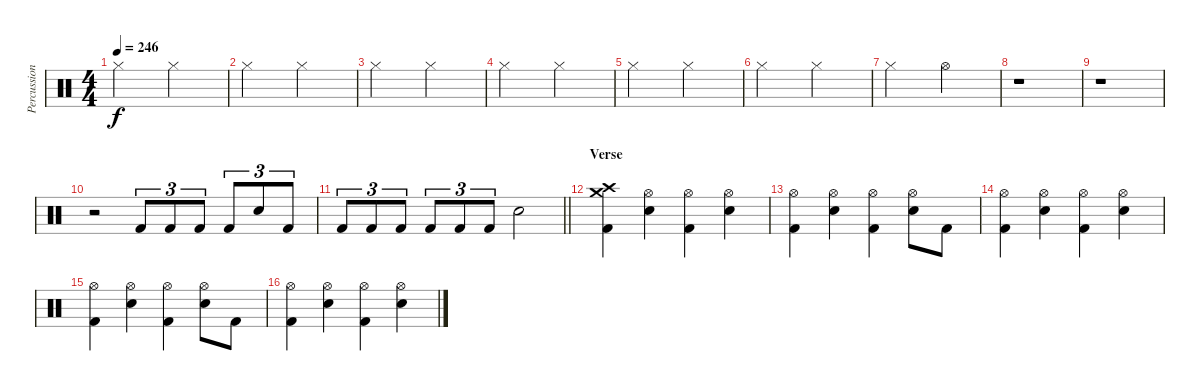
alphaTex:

\track ("Percussions" "Percussion") {instrument percussion}
\staff {score}
\articulation defaults
\ts (4 4)
\tempo 246
\clef neutral
\ks c "Hi-Hat (closed)".2{dy f} "Hi-Hat (closed)".2
|
"Hi-Hat (closed)".2 "Hi-Hat (closed)".2 |
"Hi-Hat (closed)".2 "Hi-Hat (closed)".2 |
"Hi-Hat (closed)".2 "Hi-Hat (closed)".2 |
"Hi-Hat (closed)".2 "Hi-Hat (closed)".2 |
"Hi-Hat (closed)".2 "Hi-Hat (closed)".2 |
"Hi-Hat (closed)".2 "Hi-Hat (open)".2 |
r.1 |
r.1 |
r.2 "Kick (hit) 2".8{tu (3 2)} "Kick (hit) 2".8{tu (3 2)} "Kick (hit) 2".8{tu (3 2)} "Kick (hit) 2".8{tu (3 2)} "Electric Snare (hit)".8{tu (3 2)} "Kick (hit) 2".8{tu (3 2)} |
\barLineRight lightlight "Kick (hit) 2".8{tu (3 2)} "Kick (hit) 2".8{tu (3 2)} "Kick (hit) 2".8{tu (3 2)} "Kick (hit) 2".8{tu (3 2)} "Kick (hit) 2".8{tu (3 2)} "Kick (hit) 2".8{tu (3 2)} "Electric Snare (hit)".2
|
\section ("" "Verse")
("Crash high (hit)" "Crash medium (hit)" "Kick (hit) 2").4 ("Hi-Hat (open)" "Electric Snare (hit)").4 ("Hi-Hat (open)" "Kick (hit) 2").4 ("Hi-Hat (open)" "Electric Snare (hit)").4 |
("Hi-Hat (open)" "Kick (hit) 2").4 ("Hi-Hat (open)" "Electric Snare (hit)").4 ("Hi-Hat (open)" "Kick (hit) 2").4 ("Hi-Hat (open)" "Electric Snare (hit)").8 "Kick (hit) 2".8 |
("Hi-Hat (open)" "Kick (hit) 2").4 ("Hi-Hat (open)" "Electric Snare (hit)").4 ("Hi-Hat (open)" "Kick (hit) 2").4 ("Hi-Hat (open)" "Electric Snare (hit)").4 |
("Hi-Hat (open)" "Kick (hit) 2").4 ("Hi-Hat (open)" "Electric Snare (hit)").4 ("Hi-Hat (open)" "Kick (hit) 2").4 ("Hi-Hat (open)" "Electric Snare (hit)").8 "Kick (hit) 2".8 |
("Hi-Hat (open)" "Kick (hit) 2").4 ("Hi-Hat (open)" "Electric Snare (hit)").4 ("Hi-Hat (open)" "Kick (hit) 2").4 ("Hi-Hat (open)" "Electric Snare (hit)").4
